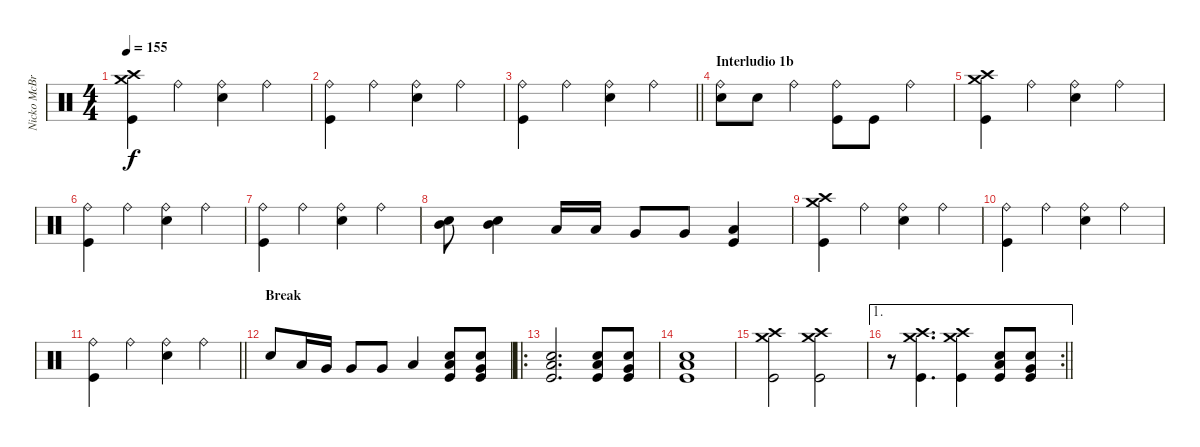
\track ("Nicko McBrain" "Nicko McBr") {instrument percussion}
\staff {score}
\articulation defaults
\ts (4 4)
\tempo 155
\clef neutral
\ks c
("Crash medium (hit)" "Crash high (hit)" "Kick (hit)").4{dy f} "Ride (bell)".4 ("Ride (bell)" "Snare (hit) 2").4 "Ride (bell)".4 |
("Ride (bell)" "Kick (hit)").4 "Ride (bell)".4 ("Ride (bell)" "Snare (hit) 2").4 "Ride (bell)".4 |
\barLineRight lightlight
("Ride (bell)" "Kick (hit)").4 "Ride (bell)".4 ("Ride (bell)" "Snare (hit) 2").4 "Ride (bell)".4 |
\section ("" "Interludio 1b")
("Ride (bell)" "Snare (hit) 2").8 "Snare (hit) 2".8 "Ride (bell)".4 ("Ride (bell)" "Kick (hit)").8 "Kick (hit)".8 "Ride (bell)".4 |
("Crash medium (hit)" "Crash high (hit)" "Kick (hit)").4 "Ride (bell)".4 ("Ride (bell)" "Snare (hit) 2").4 "Ride (bell)".4 |
("Ride (bell)" "Kick (hit)").4 "Ride (bell)".4 ("Ride (bell)" "Snare (hit) 2").4 "Ride (bell)".4 |
("Ride (bell)" "Kick (hit)").4 "Ride (bell)".4 ("Ride (bell)" "Snare (hit) 2").4 "Ride (bell)".4 |
("Mid Tom (hit)" "Snare (hit) 2").8 ("Mid Tom (hit)" "Snare (hit) 2").4 "Low Tom (hit)".16 "Low Tom (hit)".16 "Very Low Tom (hit)".8 "Very Low Tom (hit)".8 ("Low Floor Tom (hit)" "Kick (hit)").4 |
("Crash medium (hit)" "Crash high (hit)" "Kick (hit)").4 "Ride (bell)".4 ("Ride (bell)" "Snare (hit) 2").4 "Ride (bell)".4 |
("Ride (bell)" "Kick (hit)").4 "Ride (bell)".4 ("Ride (bell)" "Snare (hit) 2").4 "Ride (bell)".4 |
\barLineRight lightlight
("Ride (bell)" "Kick (hit)").4 "Ride (bell)".4 ("Ride (bell)" "Snare (hit) 2").4 "Ride (bell)".4 |
\section ("" "Break")
"Snare (hit) 2".8 "Low Tom (hit)".16 "Very Low Tom (hit)".16 "Very Low Tom (hit)".8 "Very Low Tom (hit)".8 "Low Floor Tom (hit)".4 ("Low Floor Tom (hit)" "Snare (hit) 2" "Kick (hit)").8 ("Very Low Tom (hit)" "Snare (hit) 2" "Kick (hit)").8 |
\ro
("Low Floor Tom (hit)" "Snare (hit) 2" "Kick (hit)").2{d} ("Low Floor Tom (hit)" "Snare (hit) 2" "Kick (hit)").8 ("Very Low Tom (hit)" "Snare (hit) 2" "Kick (hit)").8 |
("Low Floor Tom (hit)" "Snare (hit) 2" "Kick (hit)").1 |
("Crash medium (hit)" "Crash high (hit)" "Kick (hit)").2 ("Crash medium (hit)" "Crash high (hit)" "Kick (hit)").2 |
\ae 1
\rc 2
\barLineRight lightlight
r.8 ("Crash medium (hit)" "Crash high (hit)" "Kick (hit)").4{d} ("Crash medium (hit)" "Crash high (hit)" "Kick (hit)").4 ("Low Floor Tom (hit)" "Snare (hit) 2" "Kick (hit)").8 ("Very Low Tom (hit)" "Snare (hit) 2" "Kick (hit)").8
